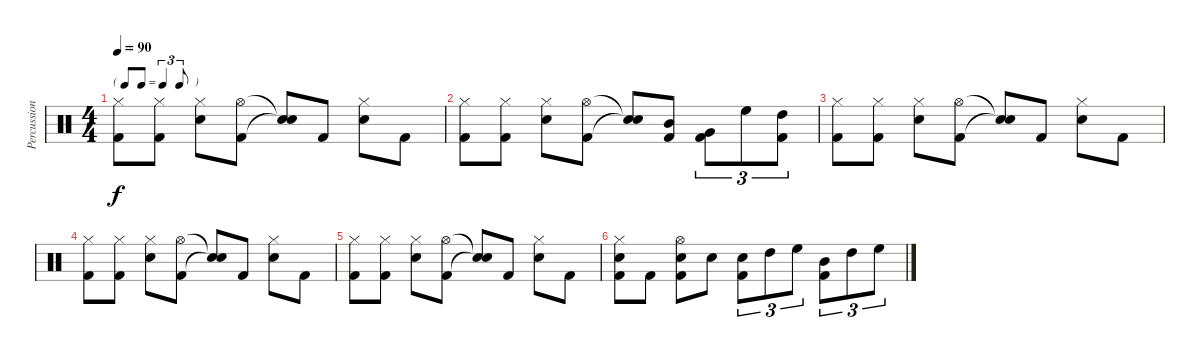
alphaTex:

\track ("Percussions" "Percussion") {instrument percussion}
\staff {score}
\articulation defaults
\ts (4 4)
\tf triplet8th
\tempo 90
\clef neutral
\ks c
("Hi-Hat (closed)" "Kick (hit) 2").8{dy f} ("Hi-Hat (closed)" "Kick (hit) 2").8 ("Hi-Hat (closed)" "Electric Snare (hit)").8 ("Hi-Hat (open)" "Kick (hit) 2").8 ("Snare (hit)"{t} "Snare (hit)"{t}).8 "Kick (hit) 2".8 ("Hi-Hat (closed)" "Electric Snare (hit)").8 "Kick (hit) 2".8 |
("Hi-Hat (closed)" "Kick (hit) 2").8 ("Hi-Hat (closed)" "Kick (hit) 2").8 ("Hi-Hat (closed)" "Electric Snare (hit)").8 ("Hi-Hat (open)" "Kick (hit) 2").8 ("Snare (hit)"{t} "Snare (hit)"{t}).8 ("Mid Tom (hit)" "Kick (hit) 2").8 ("Very Low Tom (hit)" "Kick (hit) 2").8{tu (3 2)} "High Floor Tom (hit)".8{tu (3 2)} ("High Tom (hit)" "Kick (hit) 2").8{tu (3 2)} |
("Hi-Hat (closed)" "Kick (hit) 2").8 ("Hi-Hat (closed)" "Kick (hit) 2").8 ("Hi-Hat (closed)" "Electric Snare (hit)").8 ("Hi-Hat (open)" "Kick (hit) 2").8 ("Snare (hit)"{t} "Snare (hit)"{t}).8 "Kick (hit) 2".8 ("Hi-Hat (closed)" "Electric Snare (hit)").8 "Kick (hit) 2".8 |
("Hi-Hat (closed)" "Kick (hit) 2").8 ("Hi-Hat (closed)" "Kick (hit) 2").8 ("Hi-Hat (closed)" "Electric Snare (hit)").8 ("Hi-Hat (open)" "Kick (hit) 2").8 ("Snare (hit)"{t} "Snare (hit)"{t}).8 "Kick (hit) 2".8 ("Hi-Hat (closed)" "Electric Snare (hit)").8 "Kick (hit) 2".8 |
("Hi-Hat (closed)" "Kick (hit) 2").8 ("Hi-Hat (closed)" "Kick (hit) 2").8 ("Hi-Hat (closed)" "Electric Snare (hit)").8 ("Hi-Hat (open)" "Kick (hit) 2").8 ("Snare (hit)"{t} "Snare (hit)"{t}).8 "Kick (hit) 2".8 ("Hi-Hat (closed)" "Electric Snare (hit)").8 "Kick (hit) 2".8 |
("Hi-Hat (closed)" "Electric Snare (hit)" "Kick (hit) 2").8 "Kick (hit) 2".8 ("Hi-Hat (open)" "Electric Snare (hit)" "Kick (hit) 2").8 "Electric Snare (hit)".8 ("Electric Snare (hit)" "Kick (hit) 2").8{tu (3 2)} "High Tom (hit)".8{tu (3 2)} "High Floor Tom (hit)".8{tu (3 2)} ("Mid Tom (hit)" "Kick (hit) 2").8{tu (3 2)} "High Tom (hit)".8{tu (3 2)} "High Floor Tom (hit)".8{tu (3 2)}
